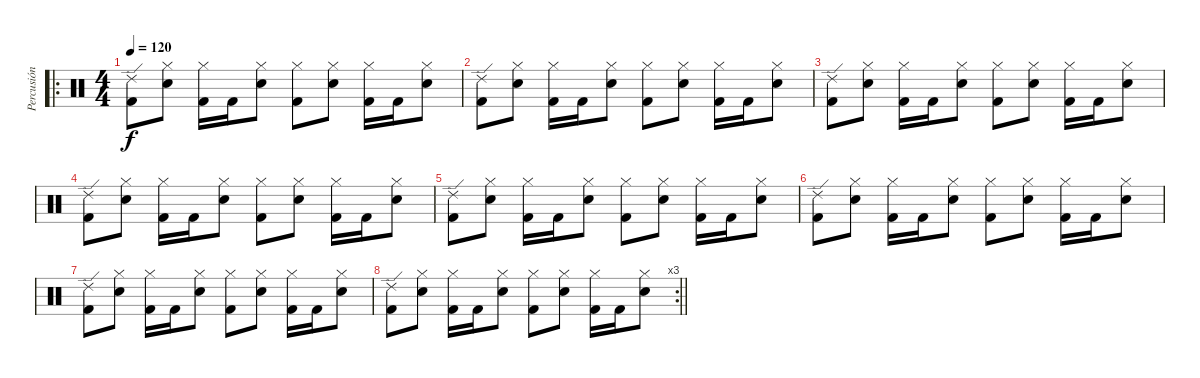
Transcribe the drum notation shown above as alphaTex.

\track ("Percusión" "Percusión") {instrument percussion}
\staff {score}
\articulation defaults
\ro
\ts (4 4)
\tempo 120
\clef neutral
\ks c
("Ride (edge) 2" "Kick (hit) 2").8{dy f} ("Hi-Hat (closed)" "Electric Snare (hit)").8 ("Hi-Hat (closed)" "Kick (hit) 2").16 "Kick (hit) 2".16 ("Hi-Hat (closed)" "Electric Snare (hit)").8 ("Hi-Hat (closed)" "Kick (hit) 2").8 ("Hi-Hat (closed)" "Electric Snare (hit)").8 ("Hi-Hat (closed)" "Kick (hit) 2").16 "Kick (hit) 2".16 ("Hi-Hat (closed)" "Electric Snare (hit)").8 |
("Ride (edge) 2" "Kick (hit) 2").8 ("Hi-Hat (closed)" "Electric Snare (hit)").8 ("Hi-Hat (closed)" "Kick (hit) 2").16 "Kick (hit) 2".16 ("Hi-Hat (closed)" "Electric Snare (hit)").8 ("Hi-Hat (closed)" "Kick (hit) 2").8 ("Hi-Hat (closed)" "Electric Snare (hit)").8 ("Hi-Hat (closed)" "Kick (hit) 2").16 "Kick (hit) 2".16 ("Hi-Hat (closed)" "Electric Snare (hit)").8 |
("Ride (edge) 2" "Kick (hit) 2").8 ("Hi-Hat (closed)" "Electric Snare (hit)").8 ("Hi-Hat (closed)" "Kick (hit) 2").16 "Kick (hit) 2".16 ("Hi-Hat (closed)" "Electric Snare (hit)").8 ("Hi-Hat (closed)" "Kick (hit) 2").8 ("Hi-Hat (closed)" "Electric Snare (hit)").8 ("Hi-Hat (closed)" "Kick (hit) 2").16 "Kick (hit) 2".16 ("Hi-Hat (closed)" "Electric Snare (hit)").8 |
("Ride (edge) 2" "Kick (hit) 2").8 ("Hi-Hat (closed)" "Electric Snare (hit)").8 ("Hi-Hat (closed)" "Kick (hit) 2").16 "Kick (hit) 2".16 ("Hi-Hat (closed)" "Electric Snare (hit)").8 ("Hi-Hat (closed)" "Kick (hit) 2").8 ("Hi-Hat (closed)" "Electric Snare (hit)").8 ("Hi-Hat (closed)" "Kick (hit) 2").16 "Kick (hit) 2".16 ("Hi-Hat (closed)" "Electric Snare (hit)").8 |
("Ride (edge) 2" "Kick (hit) 2").8 ("Hi-Hat (closed)" "Electric Snare (hit)").8 ("Hi-Hat (closed)" "Kick (hit) 2").16 "Kick (hit) 2".16 ("Hi-Hat (closed)" "Electric Snare (hit)").8 ("Hi-Hat (closed)" "Kick (hit) 2").8 ("Hi-Hat (closed)" "Electric Snare (hit)").8 ("Hi-Hat (closed)" "Kick (hit) 2").16 "Kick (hit) 2".16 ("Hi-Hat (closed)" "Electric Snare (hit)").8 |
("Ride (edge) 2" "Kick (hit) 2").8 ("Hi-Hat (closed)" "Electric Snare (hit)").8 ("Hi-Hat (closed)" "Kick (hit) 2").16 "Kick (hit) 2".16 ("Hi-Hat (closed)" "Electric Snare (hit)").8 ("Hi-Hat (closed)" "Kick (hit) 2").8 ("Hi-Hat (closed)" "Electric Snare (hit)").8 ("Hi-Hat (closed)" "Kick (hit) 2").16 "Kick (hit) 2".16 ("Hi-Hat (closed)" "Electric Snare (hit)").8 |
("Ride (edge) 2" "Kick (hit) 2").8 ("Hi-Hat (closed)" "Electric Snare (hit)").8 ("Hi-Hat (closed)" "Kick (hit) 2").16 "Kick (hit) 2".16 ("Hi-Hat (closed)" "Electric Snare (hit)").8 ("Hi-Hat (closed)" "Kick (hit) 2").8 ("Hi-Hat (closed)" "Electric Snare (hit)").8 ("Hi-Hat (closed)" "Kick (hit) 2").16 "Kick (hit) 2".16 ("Hi-Hat (closed)" "Electric Snare (hit)").8 |
\rc 3
\barLineRight lightlight
("Ride (edge) 2" "Kick (hit) 2").8 ("Hi-Hat (closed)" "Electric Snare (hit)").8 ("Hi-Hat (closed)" "Kick (hit) 2").16 "Kick (hit) 2".16 ("Hi-Hat (closed)" "Electric Snare (hit)").8 ("Hi-Hat (closed)" "Kick (hit) 2").8 ("Hi-Hat (closed)" "Electric Snare (hit)").8 ("Hi-Hat (closed)" "Kick (hit) 2").16 "Kick (hit) 2".16 ("Hi-Hat (closed)" "Electric Snare (hit)").8
